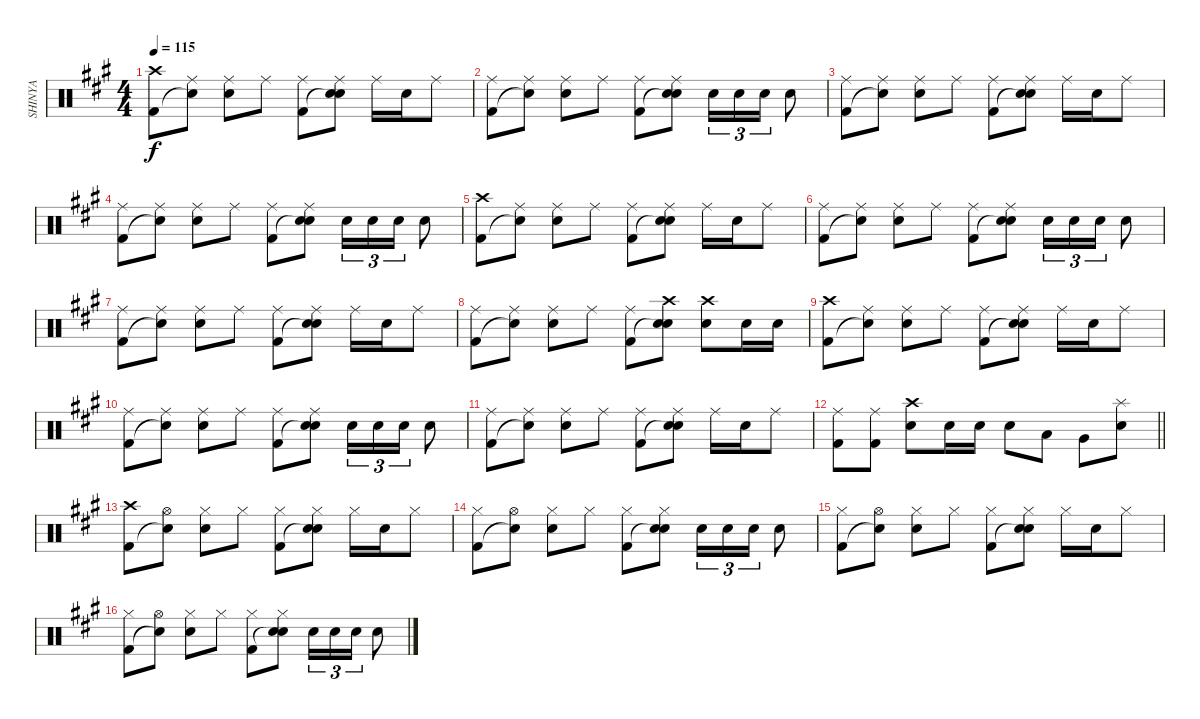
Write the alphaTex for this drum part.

\track ("SHINYA" "SHINYA") {instrument percussion}
\staff {score}
\articulation defaults
\ts (4 4)
\tempo 115
\clef neutral
\ks a
("Crash high (hit)" "Kick (hit) 2").8{dy f} ("Ride (middle)" "Snare (hit)"{t}).8 ("Ride (middle)" "Electric Snare (hit)").8 "Ride (middle)".8 ("Ride (middle)" "Kick (hit) 2").8 ("Ride (middle)" "Snare (hit)"{t} "Electric Snare (hit)").8 "Ride (middle)".16 "Electric Snare (hit)".16 "Ride (middle)".8 |
("Ride (middle)" "Kick (hit) 2").8 ("Ride (middle)" "Snare (hit)"{t}).8 ("Ride (middle)" "Electric Snare (hit)").8 "Ride (middle)".8 ("Ride (middle)" "Kick (hit) 2").8 ("Ride (middle)" "Snare (hit)"{t} "Electric Snare (hit)").8 "Electric Snare (hit)".16{tu (3 2)} "Electric Snare (hit)".16{tu (3 2)} "Electric Snare (hit)".16{tu (3 2)} "Electric Snare (hit)".8 |
("Ride (middle)" "Kick (hit) 2").8 ("Ride (middle)" "Snare (hit)"{t}).8 ("Ride (middle)" "Electric Snare (hit)").8 "Ride (middle)".8 ("Ride (middle)" "Kick (hit) 2").8 ("Ride (middle)" "Snare (hit)"{t} "Electric Snare (hit)").8 "Ride (middle)".16 "Electric Snare (hit)".16 "Ride (middle)".8 |
("Ride (middle)" "Kick (hit) 2").8 ("Ride (middle)" "Snare (hit)"{t}).8 ("Ride (middle)" "Electric Snare (hit)").8 "Ride (middle)".8 ("Ride (middle)" "Kick (hit) 2").8 ("Ride (middle)" "Snare (hit)"{t} "Electric Snare (hit)").8 "Electric Snare (hit)".16{tu (3 2)} "Electric Snare (hit)".16{tu (3 2)} "Electric Snare (hit)".16{tu (3 2)} "Electric Snare (hit)".8 |
("Crash high (hit)" "Kick (hit) 2").8 ("Ride (middle)" "Snare (hit)"{t}).8 ("Ride (middle)" "Electric Snare (hit)").8 "Ride (middle)".8 ("Ride (middle)" "Kick (hit) 2").8 ("Ride (middle)" "Snare (hit)"{t} "Electric Snare (hit)").8 "Ride (middle)".16 "Electric Snare (hit)".16 "Ride (middle)".8 |
("Ride (middle)" "Kick (hit) 2").8 ("Ride (middle)" "Snare (hit)"{t}).8 ("Ride (middle)" "Electric Snare (hit)").8 "Ride (middle)".8 ("Ride (middle)" "Kick (hit) 2").8 ("Ride (middle)" "Snare (hit)"{t} "Electric Snare (hit)").8 "Electric Snare (hit)".16{tu (3 2)} "Electric Snare (hit)".16{tu (3 2)} "Electric Snare (hit)".16{tu (3 2)} "Electric Snare (hit)".8 |
("Ride (middle)" "Kick (hit) 2").8 ("Ride (middle)" "Snare (hit)"{t}).8 ("Ride (middle)" "Electric Snare (hit)").8 "Ride (middle)".8 ("Ride (middle)" "Kick (hit) 2").8 ("Ride (middle)" "Snare (hit)"{t} "Electric Snare (hit)").8 "Ride (middle)".16 "Electric Snare (hit)".16 "Ride (middle)".8 |
("Ride (middle)" "Kick (hit) 2").8 ("Ride (middle)" "Snare (hit)"{t}).8 ("Ride (middle)" "Electric Snare (hit)").8 "Ride (middle)".8 ("Ride (middle)" "Kick (hit) 2").8 ("Crash high (hit)" "Snare (hit)"{t} "Electric Snare (hit)").8 ("Crash high (hit)" "Electric Snare (hit)").8 "Electric Snare (hit)".16 "Electric Snare (hit)".16 |
("Crash high (hit)" "Kick (hit) 2").8 ("Ride (middle)" "Snare (hit)"{t}).8 ("Ride (middle)" "Electric Snare (hit)").8 "Ride (middle)".8 ("Ride (middle)" "Kick (hit) 2").8 ("Ride (middle)" "Snare (hit)"{t} "Electric Snare (hit)").8 "Ride (middle)".16 "Electric Snare (hit)".16 "Ride (middle)".8 |
("Ride (middle)" "Kick (hit) 2").8 ("Ride (middle)" "Snare (hit)"{t}).8 ("Ride (middle)" "Electric Snare (hit)").8 "Ride (middle)".8 ("Ride (middle)" "Kick (hit) 2").8 ("Ride (middle)" "Snare (hit)"{t} "Electric Snare (hit)").8 "Electric Snare (hit)".16{tu (3 2)} "Electric Snare (hit)".16{tu (3 2)} "Electric Snare (hit)".16{tu (3 2)} "Electric Snare (hit)".8 |
("Ride (middle)" "Kick (hit) 2").8 ("Ride (middle)" "Snare (hit)"{t}).8 ("Ride (middle)" "Electric Snare (hit)").8 "Ride (middle)".8 ("Ride (middle)" "Kick (hit) 2").8 ("Ride (middle)" "Snare (hit)"{t} "Electric Snare (hit)").8 "Ride (middle)".16 "Electric Snare (hit)".16 "Ride (middle)".8 |
\barLineRight lightlight
("Ride (middle)" "Kick (hit) 2").8 ("Ride (middle)" "Kick (hit) 2").8 ("Crash high (hit)" "Electric Snare (hit)").8 "Electric Snare (hit)".16 "Electric Snare (hit)".16 "Electric Snare (hit)".8 "Low Tom (hit)".8 "Very Low Tom (hit)".8 ("Splash (hit)" "Electric Snare (hit)").8 |
("Crash high (hit)" "Kick (hit) 2").8 ("Hi-Hat (open)" "Snare (hit)"{t}).8 ("Hi-Hat (closed)" "Electric Snare (hit)").8 "Hi-Hat (closed)".8 ("Hi-Hat (closed)" "Kick (hit) 2").8 ("Hi-Hat (closed)" "Snare (hit)"{t} "Electric Snare (hit)").8 "Hi-Hat (closed)".16 "Electric Snare (hit)".16 "Hi-Hat (closed)".8 |
("Hi-Hat (closed)" "Kick (hit) 2").8 ("Hi-Hat (open)" "Snare (hit)"{t}).8 ("Hi-Hat (closed)" "Electric Snare (hit)").8 "Hi-Hat (closed)".8 ("Hi-Hat (closed)" "Kick (hit) 2").8 ("Hi-Hat (closed)" "Snare (hit)"{t} "Electric Snare (hit)").8 "Electric Snare (hit)".16{tu (3 2)} "Electric Snare (hit)".16{tu (3 2)} "Electric Snare (hit)".16{tu (3 2)} "Electric Snare (hit)".8 |
("Hi-Hat (closed)" "Kick (hit) 2").8 ("Hi-Hat (open)" "Snare (hit)"{t}).8 ("Hi-Hat (closed)" "Electric Snare (hit)").8 "Hi-Hat (closed)".8 ("Hi-Hat (closed)" "Kick (hit) 2").8 ("Hi-Hat (closed)" "Snare (hit)"{t} "Electric Snare (hit)").8 "Hi-Hat (closed)".16 "Electric Snare (hit)".16 "Hi-Hat (closed)".8 |
("Hi-Hat (closed)" "Kick (hit) 2").8 ("Hi-Hat (open)" "Snare (hit)"{t}).8 ("Hi-Hat (closed)" "Electric Snare (hit)").8 "Hi-Hat (closed)".8 ("Hi-Hat (closed)" "Kick (hit) 2").8 ("Hi-Hat (closed)" "Snare (hit)"{t} "Electric Snare (hit)").8 "Electric Snare (hit)".16{tu (3 2)} "Electric Snare (hit)".16{tu (3 2)} "Electric Snare (hit)".16{tu (3 2)} "Electric Snare (hit)".8
